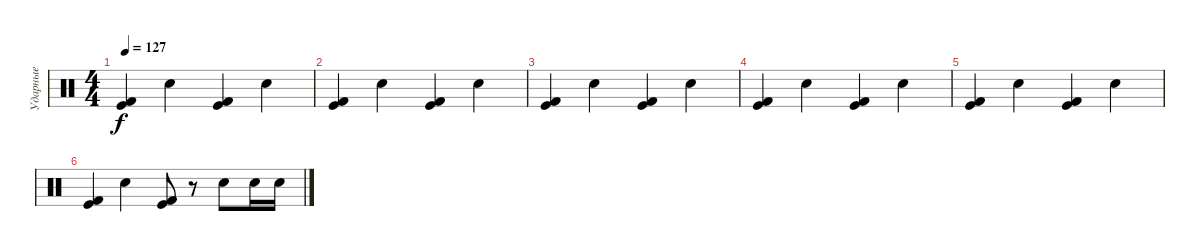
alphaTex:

\track ("Ударные" "Ударные") {instrument percussion}
\staff {score}
\articulation defaults
\ts (4 4)
\tempo 127
\clef neutral
\ks c
("Kick (hit) 2" "Kick (hit)").4{dy f} "Snare (hit) 2".4 ("Kick (hit) 2" "Kick (hit)").4 "Snare (hit) 2".4 |
("Kick (hit) 2" "Kick (hit)").4 "Snare (hit) 2".4 ("Kick (hit) 2" "Kick (hit)").4 "Snare (hit) 2".4 |
("Kick (hit) 2" "Kick (hit)").4 "Snare (hit) 2".4 ("Kick (hit) 2" "Kick (hit)").4 "Snare (hit) 2".4 |
("Kick (hit) 2" "Kick (hit)").4 "Snare (hit) 2".4 ("Kick (hit) 2" "Kick (hit)").4 "Snare (hit) 2".4 |
("Kick (hit) 2" "Kick (hit)").4 "Snare (hit) 2".4 ("Kick (hit) 2" "Kick (hit)").4 "Snare (hit) 2".4 |
("Kick (hit) 2" "Kick (hit)").4 "Snare (hit) 2".4 ("Kick (hit) 2" "Kick (hit)").8 r.8 "Snare (hit) 2".8 "Snare (hit) 2".16 "Snare (hit) 2".16
